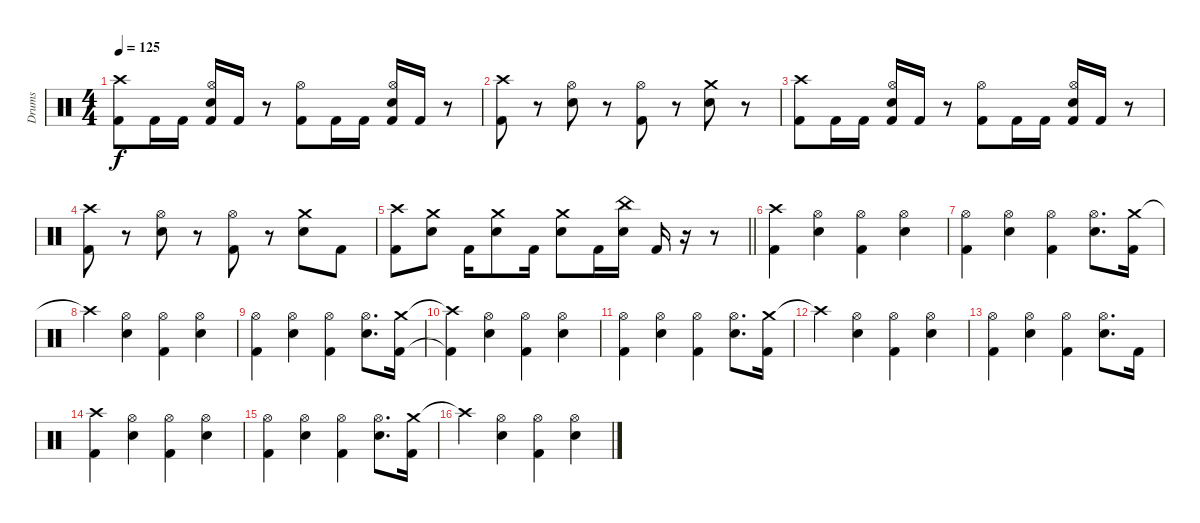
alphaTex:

\track ("Drums" "Drums") {instrument percussion}
\staff
\articulation defaults
\ts (4 4)
\tempo 125
\clef neutral
\ks c
("Crash high (hit)" "Kick (hit) 2").8{dy f} "Kick (hit) 2".16 "Kick (hit) 2".16 ("Hi-Hat (open)" "Electric Snare (hit)" "Kick (hit) 2").16 "Kick (hit) 2".16 r.8 ("Hi-Hat (open)" "Kick (hit) 2").8 "Kick (hit) 2".16 "Kick (hit) 2".16 ("Hi-Hat (open)" "Electric Snare (hit)" "Kick (hit) 2").16 "Kick (hit) 2".16 r.8 |
("Crash high (hit)" "Kick (hit) 2").8 r.8 ("Hi-Hat (open)" "Electric Snare (hit)").8 r.8 ("Hi-Hat (open)" "Kick (hit) 2").8 r.8 ("Crash medium (hit)" "Electric Snare (hit)").8 r.8 |
("Crash high (hit)" "Kick (hit) 2").8 "Kick (hit) 2".16 "Kick (hit) 2".16 ("Hi-Hat (open)" "Electric Snare (hit)" "Kick (hit) 2").16 "Kick (hit) 2".16 r.8 ("Hi-Hat (open)" "Kick (hit) 2").8 "Kick (hit) 2".16 "Kick (hit) 2".16 ("Hi-Hat (open)" "Electric Snare (hit)" "Kick (hit) 2").16 "Kick (hit) 2".16 r.8 |
("Crash high (hit)" "Kick (hit) 2").8 r.8 ("Hi-Hat (open)" "Electric Snare (hit)").8 r.8 ("Hi-Hat (open)" "Kick (hit) 2").8 r.8 ("Crash medium (hit)" "Electric Snare (hit)").8 "Kick (hit) 2".8 |
\barLineRight lightlight
("Crash high (hit)" "Kick (hit) 2").8 ("Crash medium (hit)" "Electric Snare (hit)").8 "Kick (hit) 2".16 ("Crash medium (hit)" "Electric Snare (hit)").8 "Kick (hit) 2".16 ("Crash medium (hit)" "Electric Snare (hit)").8 "Kick (hit) 2".16 ("China (hit)" "Electric Snare (hit)").16 "Kick (hit) 2".16 r.16 r.8 |
\section ("" "")
("Crash high (hit)" "Kick (hit) 2").4 ("Hi-Hat (open)" "Electric Snare (hit)").4 ("Hi-Hat (open)" "Kick (hit) 2").4 ("Hi-Hat (open)" "Electric Snare (hit)").4 |
("Hi-Hat (open)" "Kick (hit) 2").4 ("Hi-Hat (open)" "Electric Snare (hit)").4 ("Hi-Hat (open)" "Kick (hit) 2").4 ("Hi-Hat (open)" "Electric Snare (hit)").8{d} ("Crash medium (hit)" "Kick (hit) 2").16 |
"Crash high (hit)"{t}.4 ("Hi-Hat (open)" "Electric Snare (hit)").4 ("Hi-Hat (open)" "Kick (hit) 2").4 ("Hi-Hat (open)" "Electric Snare (hit)").4 |
("Hi-Hat (open)" "Kick (hit) 2").4 ("Hi-Hat (open)" "Electric Snare (hit)").4 ("Hi-Hat (open)" "Kick (hit) 2").4 ("Hi-Hat (open)" "Electric Snare (hit)").8{d} ("Crash medium (hit)" "Kick (hit) 2").16 |
("Crash high (hit)"{t} "Kick (hit) 2"{t}).4 ("Hi-Hat (open)" "Electric Snare (hit)").4 ("Hi-Hat (open)" "Kick (hit) 2").4 ("Hi-Hat (open)" "Electric Snare (hit)").4 |
("Hi-Hat (open)" "Kick (hit) 2").4 ("Hi-Hat (open)" "Electric Snare (hit)").4 ("Hi-Hat (open)" "Kick (hit) 2").4 ("Hi-Hat (open)" "Electric Snare (hit)").8{d} ("Crash medium (hit)" "Kick (hit) 2").16 |
"Crash high (hit)"{t}.4 ("Hi-Hat (open)" "Electric Snare (hit)").4 ("Hi-Hat (open)" "Kick (hit) 2").4 ("Hi-Hat (open)" "Electric Snare (hit)").4 |
("Hi-Hat (open)" "Kick (hit) 2").4 ("Hi-Hat (open)" "Electric Snare (hit)").4 ("Hi-Hat (open)" "Kick (hit) 2").4 ("Hi-Hat (open)" "Electric Snare (hit)").8{d} "Kick (hit) 2".16 |
("Crash high (hit)" "Kick (hit) 2").4 ("Hi-Hat (open)" "Electric Snare (hit)").4 ("Hi-Hat (open)" "Kick (hit) 2").4 ("Hi-Hat (open)" "Electric Snare (hit)").4 |
("Hi-Hat (open)" "Kick (hit) 2").4 ("Hi-Hat (open)" "Electric Snare (hit)").4 ("Hi-Hat (open)" "Kick (hit) 2").4 ("Hi-Hat (open)" "Electric Snare (hit)").8{d} ("Crash medium (hit)" "Kick (hit) 2").16 |
"Crash high (hit)"{t}.4 ("Hi-Hat (open)" "Electric Snare (hit)").4 ("Hi-Hat (open)" "Kick (hit) 2").4 ("Hi-Hat (open)" "Electric Snare (hit)").4
